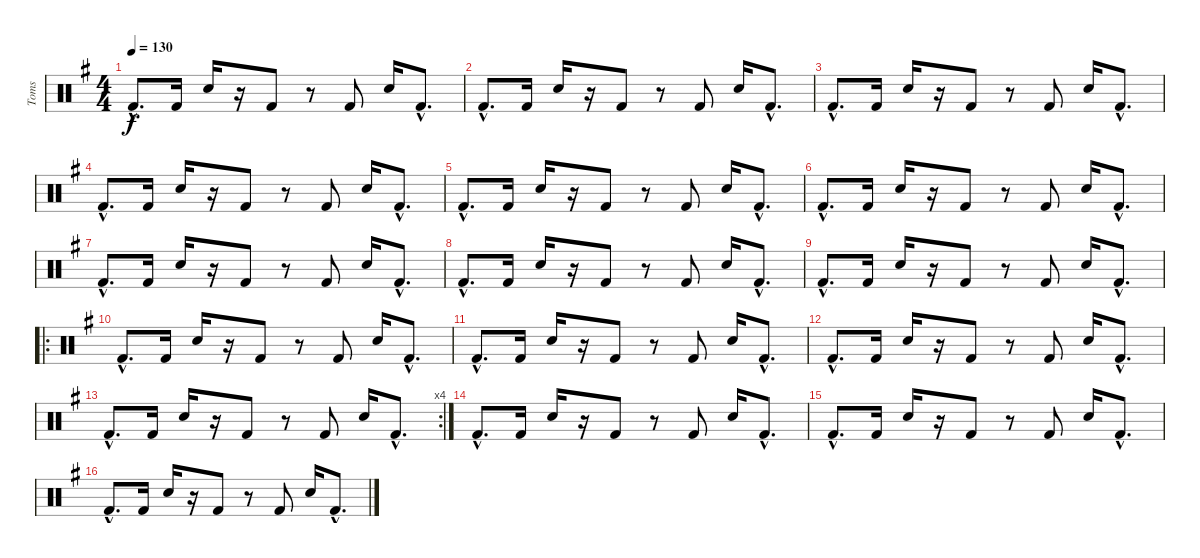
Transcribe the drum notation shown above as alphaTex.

\track ("Toms" "Toms") {instrument percussion}
\staff {score}
\articulation defaults
\ts (4 4)
\tempo 130
\clef neutral
\ks g "Kick (hit) 2"{hac}.8{d dy f} "Kick (hit) 2".16 "Snare (hit) 2".16
r.16 "Kick (hit) 2".8 r.8 "Kick (hit) 2".8 "Snare (hit) 2".16 "Kick (hit) 2"{hac}.8{d} |
"Kick (hit) 2"{hac}.8{d} "Kick (hit) 2".16 "Snare (hit) 2".16 r.16 "Kick (hit) 2".8 r.8 "Kick (hit) 2".8 "Snare (hit) 2".16 "Kick (hit) 2"{hac}.8{d} |
"Kick (hit) 2"{hac}.8{d} "Kick (hit) 2".16 "Snare (hit) 2".16 r.16 "Kick (hit) 2".8 r.8 "Kick (hit) 2".8 "Snare (hit) 2".16 "Kick (hit) 2"{hac}.8{d} |
"Kick (hit) 2"{hac}.8{d} "Kick (hit) 2".16 "Snare (hit) 2".16 r.16 "Kick (hit) 2".8 r.8 "Kick (hit) 2".8 "Snare (hit) 2".16 "Kick (hit) 2"{hac}.8{d} |
"Kick (hit) 2"{hac}.8{d} "Kick (hit) 2".16 "Snare (hit) 2".16 r.16 "Kick (hit) 2".8 r.8 "Kick (hit) 2".8 "Snare (hit) 2".16 "Kick (hit) 2"{hac}.8{d} |
"Kick (hit) 2"{hac}.8{d} "Kick (hit) 2".16 "Snare (hit) 2".16 r.16 "Kick (hit) 2".8 r.8 "Kick (hit) 2".8 "Snare (hit) 2".16 "Kick (hit) 2"{hac}.8{d} |
"Kick (hit) 2"{hac}.8{d} "Kick (hit) 2".16 "Snare (hit) 2".16 r.16 "Kick (hit) 2".8 r.8 "Kick (hit) 2".8 "Snare (hit) 2".16 "Kick (hit) 2"{hac}.8{d} |
"Kick (hit) 2"{hac}.8{d} "Kick (hit) 2".16 "Snare (hit) 2".16 r.16 "Kick (hit) 2".8 r.8 "Kick (hit) 2".8 "Snare (hit) 2".16 "Kick (hit) 2"{hac}.8{d} |
"Kick (hit) 2"{hac}.8{d} "Kick (hit) 2".16 "Snare (hit) 2".16 r.16 "Kick (hit) 2".8 r.8 "Kick (hit) 2".8 "Snare (hit) 2".16 "Kick (hit) 2"{hac}.8{d} |
\ro "Kick (hit) 2"{hac}.8{d} "Kick (hit) 2".16 "Snare (hit) 2".16
r.16 "Kick (hit) 2".8 r.8 "Kick (hit) 2".8 "Snare (hit) 2".16 "Kick (hit) 2"{hac}.8{d} |
"Kick (hit) 2"{hac}.8{d} "Kick (hit) 2".16 "Snare (hit) 2".16 r.16 "Kick (hit) 2".8 r.8 "Kick (hit) 2".8 "Snare (hit) 2".16 "Kick (hit) 2"{hac}.8{d} |
"Kick (hit) 2"{hac}.8{d} "Kick (hit) 2".16 "Snare (hit) 2".16 r.16 "Kick (hit) 2".8 r.8 "Kick (hit) 2".8 "Snare (hit) 2".16 "Kick (hit) 2"{hac}.8{d} |
\rc 4 "Kick (hit) 2"{hac}.8{d} "Kick (hit) 2".16 "Snare (hit) 2".16
r.16 "Kick (hit) 2".8 r.8 "Kick (hit) 2".8 "Snare (hit) 2".16 "Kick (hit) 2"{hac}.8{d} |
"Kick (hit) 2"{hac}.8{d} "Kick (hit) 2".16 "Snare (hit) 2".16 r.16 "Kick (hit) 2".8 r.8 "Kick (hit) 2".8 "Snare (hit) 2".16 "Kick (hit) 2"{hac}.8{d} |
"Kick (hit) 2"{hac}.8{d} "Kick (hit) 2".16 "Snare (hit) 2".16 r.16 "Kick (hit) 2".8 r.8 "Kick (hit) 2".8 "Snare (hit) 2".16 "Kick (hit) 2"{hac}.8{d} |
"Kick (hit) 2"{hac}.8{d} "Kick (hit) 2".16 "Snare (hit) 2".16 r.16 "Kick (hit) 2".8 r.8 "Kick (hit) 2".8 "Snare (hit) 2".16 "Kick (hit) 2"{hac}.8{d}
